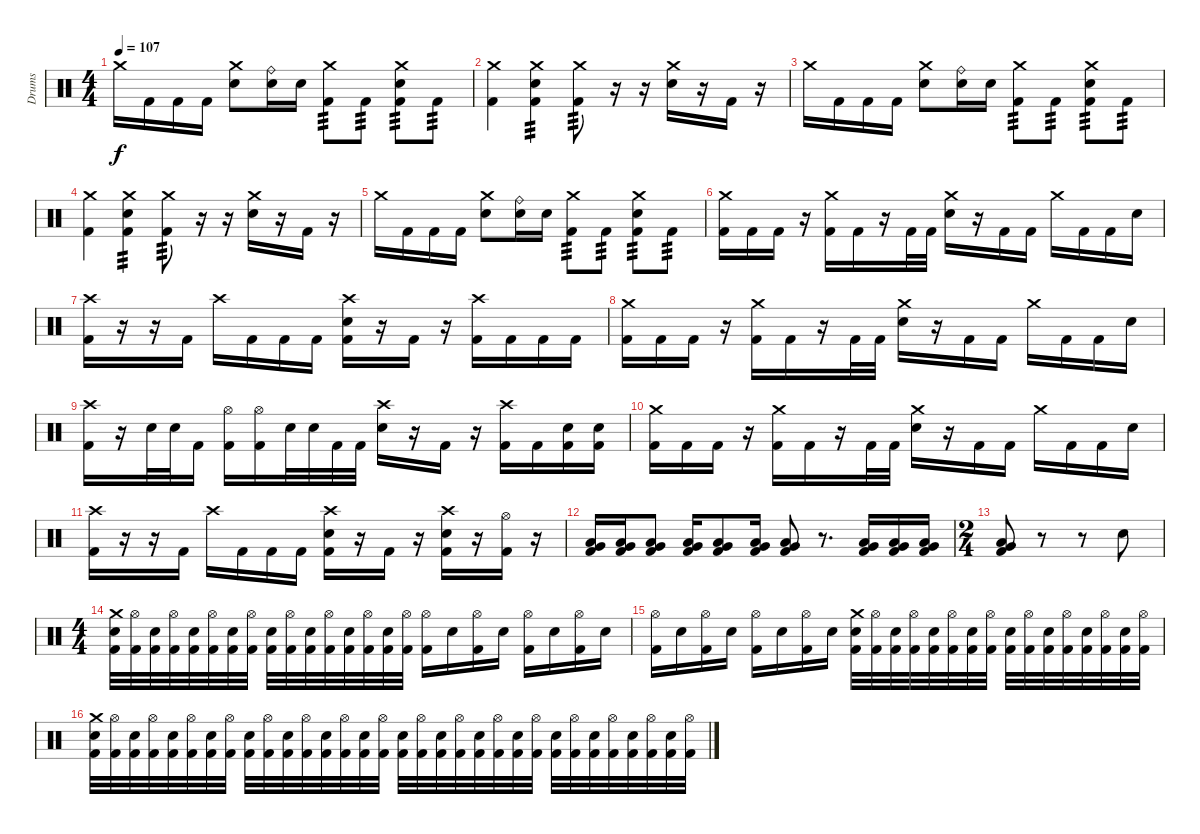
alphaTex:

\track ("Drums" "Drums") {instrument percussion}
\staff {score}
\articulation defaults
\ts (4 4)
\tempo 107
\clef neutral
\ks c "Crash medium (hit)".16{dy f} "Kick (hit) 2".16 "Kick (hit) 2".16 "Kick (hit) 2".16
("Crash medium (hit)" "Electric Snare (hit)").8 ("Ride (bell)" "Electric Snare (hit)").16 "Electric Snare (hit)".16 ("Crash medium (hit)" "Kick (hit) 2").8{tp 3} "Kick (hit) 2".8{tp 3} ("Crash medium (hit)" "Electric Snare (hit)" "Kick (hit) 2").8{tp 3} "Kick (hit) 2".8{tp 3} |
("Crash medium (hit)" "Kick (hit) 2").4 ("Crash medium (hit)" "Electric Snare (hit)" "Kick (hit) 2").4{tp 3} ("Crash medium (hit)" "Kick (hit) 2").8{tp 3} r.16 r.16 ("Crash medium (hit)" "Electric Snare (hit)").16 r.16 "Kick (hit) 2".16 r.16 |
"Crash medium (hit)".16 "Kick (hit) 2".16 "Kick (hit) 2".16 "Kick (hit) 2".16 ("Crash medium (hit)" "Electric Snare (hit)").8 ("Ride (bell)" "Electric Snare (hit)").16 "Electric Snare (hit)".16 ("Crash medium (hit)" "Kick (hit) 2").8{tp 3} "Kick (hit) 2".8{tp 3} ("Crash medium (hit)" "Electric Snare (hit)" "Kick (hit) 2").8{tp 3} "Kick (hit) 2".8{tp 3} |
("Crash medium (hit)" "Kick (hit) 2").4 ("Crash medium (hit)" "Electric Snare (hit)" "Kick (hit) 2").4{tp 3} ("Crash medium (hit)" "Kick (hit) 2").8{tp 3} r.16 r.16 ("Crash medium (hit)" "Electric Snare (hit)").16 r.16 "Kick (hit) 2".16 r.16 |
"Crash medium (hit)".16 "Kick (hit) 2".16 "Kick (hit) 2".16 "Kick (hit) 2".16 ("Crash medium (hit)" "Electric Snare (hit)").8 ("Ride (bell)" "Electric Snare (hit)").16 "Electric Snare (hit)".16 ("Crash medium (hit)" "Kick (hit) 2").8{tp 3} "Kick (hit) 2".8{tp 3} ("Crash medium (hit)" "Electric Snare (hit)" "Kick (hit) 2").8{tp 3} "Kick (hit) 2".8{tp 3} |
("Crash medium (hit)" "Kick (hit) 2").16 "Kick (hit) 2".16 "Kick (hit) 2".16 r.16 ("Crash medium (hit)" "Kick (hit) 2").16 "Kick (hit) 2".16 r.16 "Kick (hit) 2".32 "Kick (hit) 2".32 ("Crash medium (hit)" "Electric Snare (hit)").16 r.16 "Kick (hit) 2".16 "Kick (hit) 2".16 "Crash medium (hit)".16 "Kick (hit) 2".16 "Kick (hit) 2".16 "Electric Snare (hit)".16 |
("Crash high (hit)" "Kick (hit) 2").16 r.16 r.16 "Kick (hit) 2".16 "Crash high (hit)".16 "Kick (hit) 2".16 "Kick (hit) 2".16 "Kick (hit) 2".16 ("Crash high (hit)" "Electric Snare (hit)" "Kick (hit) 2").16 r.16 "Kick (hit) 2".16 r.16 ("Crash high (hit)" "Kick (hit) 2").16 "Kick (hit) 2".16 "Kick (hit) 2".16 "Kick (hit) 2".16 |
("Crash medium (hit)" "Kick (hit) 2").16 "Kick (hit) 2".16 "Kick (hit) 2".16 r.16 ("Crash medium (hit)" "Kick (hit) 2").16 "Kick (hit) 2".16 r.16 "Kick (hit) 2".32 "Kick (hit) 2".32 ("Crash medium (hit)" "Electric Snare (hit)").16 r.16 "Kick (hit) 2".16 "Kick (hit) 2".16 "Crash medium (hit)".16 "Kick (hit) 2".16 "Kick (hit) 2".16 "Electric Snare (hit)".16 |
("Crash high (hit)" "Kick (hit) 2").16 r.16 "Electric Snare (hit)".32 "Electric Snare (hit)".32 "Kick (hit) 2".16 ("Hi-Hat (open)" "Kick (hit) 2").16 ("Hi-Hat (open)" "Kick (hit) 2").16 "Electric Snare (hit)".32 "Electric Snare (hit)".32 "Kick (hit) 2".32 "Kick (hit) 2".32 ("Crash high (hit)" "Electric Snare (hit)").16 r.16 "Kick (hit) 2".16 r.16 ("Crash high (hit)" "Kick (hit) 2").16 "Kick (hit) 2".16 ("Electric Snare (hit)" "Kick (hit) 2").16 ("Electric Snare (hit)" "Kick (hit) 2").16 |
("Crash medium (hit)" "Kick (hit) 2").16 "Kick (hit) 2".16 "Kick (hit) 2".16 r.16 ("Crash medium (hit)" "Kick (hit) 2").16 "Kick (hit) 2".16 r.16 "Kick (hit) 2".32 "Kick (hit) 2".32 ("Crash medium (hit)" "Electric Snare (hit)").16 r.16 "Kick (hit) 2".16 "Kick (hit) 2".16 "Crash medium (hit)".16 "Kick (hit) 2".16 "Kick (hit) 2".16 "Electric Snare (hit)".16 |
("Crash high (hit)" "Kick (hit) 2").16 r.16 r.16 "Kick (hit) 2".16 "Crash high (hit)".16 "Kick (hit) 2".16 "Kick (hit) 2".16 "Kick (hit) 2".16 ("Crash high (hit)" "Electric Snare (hit)" "Kick (hit) 2").16 r.16 "Kick (hit) 2".16 r.16 ("Crash high (hit)" "Electric Snare (hit)" "Kick (hit) 2").16 r.16 ("Hi-Hat (open)" "Kick (hit) 2").16 r.16 |
("Low Floor Tom (hit)" "Very Low Tom (hit)" "Kick (hit) 2").16 ("Low Floor Tom (hit)" "Very Low Tom (hit)" "Kick (hit) 2").16 ("Low Floor Tom (hit)" "Very Low Tom (hit)" "Kick (hit) 2").8 ("Low Floor Tom (hit)" "Very Low Tom (hit)" "Kick (hit) 2").16 ("Low Floor Tom (hit)" "Very Low Tom (hit)" "Kick (hit) 2").8 ("Low Floor Tom (hit)" "Very Low Tom (hit)" "Kick (hit) 2").16 ("Low Floor Tom (hit)" "Very Low Tom (hit)" "Kick (hit) 2").8 r.8{d} ("Low Floor Tom (hit)" "Very Low Tom (hit)" "Kick (hit) 2").16 ("Low Floor Tom (hit)" "Very Low Tom (hit)" "Kick (hit) 2").16 ("Low Floor Tom (hit)" "Very Low Tom (hit)" "Kick (hit) 2").16 |
\ts (2 4)
("Low Floor Tom (hit)" "Very Low Tom (hit)" "Kick (hit) 2").8 r.8 r.8 "Electric Snare (hit)".8 |
\ts (4 4)
("Crash medium (hit)" "Electric Snare (hit)" "Kick (hit) 2").32 ("Hi-Hat (open)" "Kick (hit) 2").32 ("Electric Snare (hit)" "Kick (hit) 2").32 ("Hi-Hat (open)" "Kick (hit) 2").32 ("Electric Snare (hit)" "Kick (hit) 2").32 ("Hi-Hat (open)" "Kick (hit) 2").32 ("Electric Snare (hit)" "Kick (hit) 2").32 ("Hi-Hat (open)" "Kick (hit) 2").32 ("Electric Snare (hit)" "Kick (hit) 2").32 ("Hi-Hat (open)" "Kick (hit) 2").32 ("Electric Snare (hit)" "Kick (hit) 2").32 ("Hi-Hat (open)" "Kick (hit) 2").32 ("Electric Snare (hit)" "Kick (hit) 2").32 ("Hi-Hat (open)" "Kick (hit) 2").32 ("Electric Snare (hit)" "Kick (hit) 2").32 ("Hi-Hat (open)" "Kick (hit) 2").32 ("Hi-Hat (open)" "Kick (hit) 2").16 "Electric Snare (hit)".16 ("Hi-Hat (open)" "Kick (hit) 2").16 "Electric Snare (hit)".16 ("Hi-Hat (open)" "Kick (hit) 2").16 "Electric Snare (hit)".16 ("Hi-Hat (open)" "Kick (hit) 2").16 "Electric Snare (hit)".16 |
("Hi-Hat (open)" "Kick (hit) 2").16 "Electric Snare (hit)".16 ("Hi-Hat (open)" "Kick (hit) 2").16 "Electric Snare (hit)".16 ("Hi-Hat (open)" "Kick (hit) 2").16 "Electric Snare (hit)".16 ("Hi-Hat (open)" "Kick (hit) 2").16 "Electric Snare (hit)".16 ("Crash medium (hit)" "Electric Snare (hit)" "Kick (hit) 2").32 ("Hi-Hat (open)" "Kick (hit) 2").32 ("Electric Snare (hit)" "Kick (hit) 2").32 ("Hi-Hat (open)" "Kick (hit) 2").32 ("Electric Snare (hit)" "Kick (hit) 2").32 ("Hi-Hat (open)" "Kick (hit) 2").32 ("Electric Snare (hit)" "Kick (hit) 2").32 ("Hi-Hat (open)" "Kick (hit) 2").32 ("Electric Snare (hit)" "Kick (hit) 2").32 ("Hi-Hat (open)" "Kick (hit) 2").32 ("Electric Snare (hit)" "Kick (hit) 2").32 ("Hi-Hat (open)" "Kick (hit) 2").32 ("Electric Snare (hit)" "Kick (hit) 2").32 ("Hi-Hat (open)" "Kick (hit) 2").32 ("Electric Snare (hit)" "Kick (hit) 2").32 ("Hi-Hat (open)" "Kick (hit) 2").32 |
("Crash medium (hit)" "Electric Snare (hit)" "Kick (hit) 2").32 ("Hi-Hat (open)" "Kick (hit) 2").32 ("Electric Snare (hit)" "Kick (hit) 2").32 ("Hi-Hat (open)" "Kick (hit) 2").32 ("Electric Snare (hit)" "Kick (hit) 2").32 ("Hi-Hat (open)" "Kick (hit) 2").32 ("Electric Snare (hit)" "Kick (hit) 2").32 ("Hi-Hat (open)" "Kick (hit) 2").32 ("Electric Snare (hit)" "Kick (hit) 2").32 ("Hi-Hat (open)" "Kick (hit) 2").32 ("Electric Snare (hit)" "Kick (hit) 2").32 ("Hi-Hat (open)" "Kick (hit) 2").32 ("Electric Snare (hit)" "Kick (hit) 2").32 ("Hi-Hat (open)" "Kick (hit) 2").32 ("Electric Snare (hit)" "Kick (hit) 2").32 ("Hi-Hat (open)" "Kick (hit) 2").32 ("Electric Snare (hit)" "Kick (hit) 2").32 ("Hi-Hat (open)" "Kick (hit) 2").32 ("Electric Snare (hit)" "Kick (hit) 2").32 ("Hi-Hat (open)" "Kick (hit) 2").32 ("Electric Snare (hit)" "Kick (hit) 2").32 ("Hi-Hat (open)" "Kick (hit) 2").32 ("Electric Snare (hit)" "Kick (hit) 2").32 ("Hi-Hat (open)" "Kick (hit) 2").32 ("Electric Snare (hit)" "Kick (hit) 2").32 ("Hi-Hat (open)" "Kick (hit) 2").32 ("Electric Snare (hit)" "Kick (hit) 2").32 ("Hi-Hat (open)" "Kick (hit) 2").32 ("Electric Snare (hit)" "Kick (hit) 2").32 ("Hi-Hat (open)" "Kick (hit) 2").32 ("Electric Snare (hit)" "Kick (hit) 2").32 ("Hi-Hat (open)" "Kick (hit) 2").32
